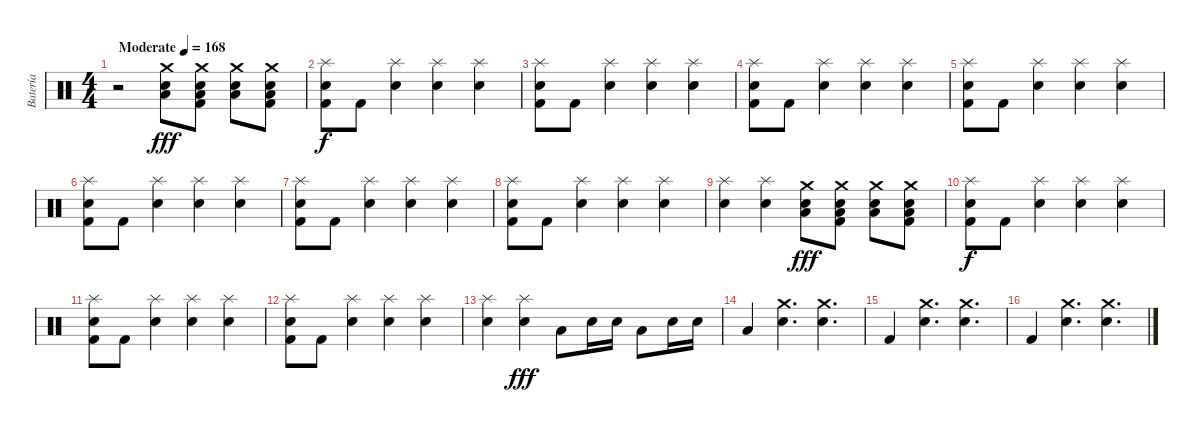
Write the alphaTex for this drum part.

\track ("Batería" "Batería") {instrument percussion}
\staff {score}
\articulation defaults
\ts (4 4)
\tempo (168 "Moderate")
\clef neutral
\ks c
r.2{dy fff} ("Crash medium (hit)" "Low Floor Tom (hit)" "Electric Snare (hit)").8 ("Crash medium (hit)" "Low Floor Tom (hit)" "Snare (hit) 2" "Kick (hit) 2").8 ("Crash medium (hit)" "Low Floor Tom (hit)" "Electric Snare (hit)").8 ("Crash medium (hit)" "Low Floor Tom (hit)" "Snare (hit) 2" "Kick (hit) 2").8 |
("Splash (hit)" "Electric Snare (hit)" "Kick (hit) 2").8{dy f} "Kick (hit) 2".8 ("Splash (hit)" "Electric Snare (hit)").4 ("Splash (hit)" "Electric Snare (hit)").4 ("Splash (hit)" "Electric Snare (hit)").4 |
("Splash (hit)" "Electric Snare (hit)" "Kick (hit) 2").8 "Kick (hit) 2".8 ("Splash (hit)" "Electric Snare (hit)").4 ("Splash (hit)" "Electric Snare (hit)").4 ("Splash (hit)" "Electric Snare (hit)").4 |
("Splash (hit)" "Electric Snare (hit)" "Kick (hit) 2").8 "Kick (hit) 2".8 ("Splash (hit)" "Electric Snare (hit)").4 ("Splash (hit)" "Electric Snare (hit)").4 ("Splash (hit)" "Electric Snare (hit)").4 |
("Splash (hit)" "Electric Snare (hit)" "Kick (hit) 2").8 "Kick (hit) 2".8 ("Splash (hit)" "Electric Snare (hit)").4 ("Splash (hit)" "Electric Snare (hit)").4 ("Splash (hit)" "Electric Snare (hit)").4 |
("Splash (hit)" "Electric Snare (hit)" "Kick (hit) 2").8 "Kick (hit) 2".8 ("Splash (hit)" "Electric Snare (hit)").4 ("Splash (hit)" "Electric Snare (hit)").4 ("Splash (hit)" "Electric Snare (hit)").4 |
("Splash (hit)" "Electric Snare (hit)" "Kick (hit) 2").8 "Kick (hit) 2".8 ("Splash (hit)" "Electric Snare (hit)").4 ("Splash (hit)" "Electric Snare (hit)").4 ("Splash (hit)" "Electric Snare (hit)").4 |
("Splash (hit)" "Electric Snare (hit)" "Kick (hit) 2").8 "Kick (hit) 2".8 ("Splash (hit)" "Electric Snare (hit)").4 ("Splash (hit)" "Electric Snare (hit)").4 ("Splash (hit)" "Electric Snare (hit)").4 |
("Splash (hit)" "Electric Snare (hit)").4 ("Splash (hit)" "Electric Snare (hit)").4 ("Crash medium (hit)" "Low Floor Tom (hit)" "Electric Snare (hit)").8{dy fff} ("Crash medium (hit)" "Low Floor Tom (hit)" "Snare (hit) 2" "Kick (hit) 2").8 ("Crash medium (hit)" "Low Floor Tom (hit)" "Electric Snare (hit)").8 ("Crash medium (hit)" "Low Floor Tom (hit)" "Snare (hit) 2" "Kick (hit) 2").8 |
("Splash (hit)" "Electric Snare (hit)" "Kick (hit) 2").8{dy f} "Kick (hit) 2".8 ("Splash (hit)" "Electric Snare (hit)").4 ("Splash (hit)" "Electric Snare (hit)").4 ("Splash (hit)" "Electric Snare (hit)").4 |
("Splash (hit)" "Electric Snare (hit)" "Kick (hit) 2").8 "Kick (hit) 2".8 ("Splash (hit)" "Electric Snare (hit)").4 ("Splash (hit)" "Electric Snare (hit)").4 ("Splash (hit)" "Electric Snare (hit)").4 |
("Splash (hit)" "Electric Snare (hit)" "Kick (hit) 2").8 "Kick (hit) 2".8 ("Splash (hit)" "Electric Snare (hit)").4 ("Splash (hit)" "Electric Snare (hit)").4 ("Splash (hit)" "Electric Snare (hit)").4 |
("Splash (hit)" "Electric Snare (hit)").4 ("Splash (hit)" "Electric Snare (hit)").4{dy fff} "Low Floor Tom (hit)".8 "Electric Snare (hit)".16 "Electric Snare (hit)".16 "Low Floor Tom (hit)".8 "Electric Snare (hit)".16 "Electric Snare (hit)".16 |
"Low Floor Tom (hit)".4 ("Crash medium (hit)" "Electric Snare (hit)").4{d} ("Crash medium (hit)" "Electric Snare (hit)").4{d} |
"Kick (hit) 2".4 ("Crash medium (hit)" "Electric Snare (hit)").4{d} ("Crash medium (hit)" "Electric Snare (hit)").4{d} |
"Kick (hit) 2".4 ("Crash medium (hit)" "Electric Snare (hit)").4{d} ("Crash medium (hit)" "Electric Snare (hit)").4{d}
